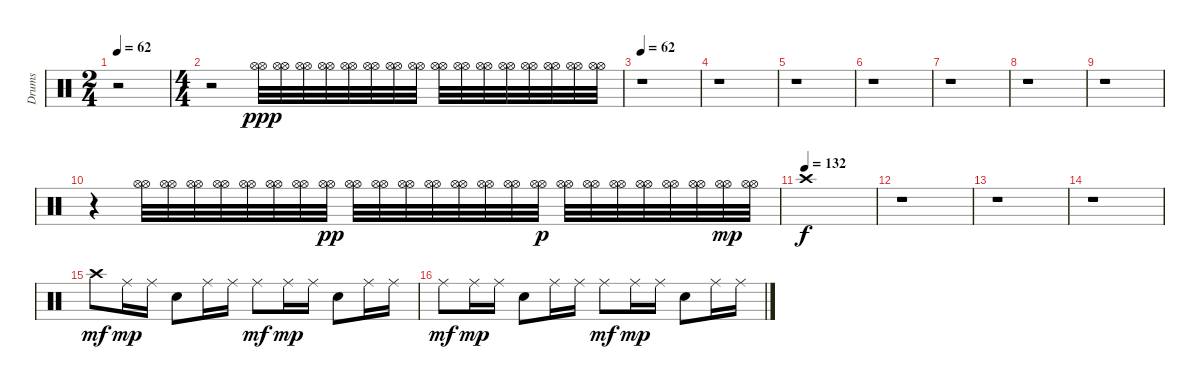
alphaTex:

\track ("Drums" "Drums") {instrument percussion}
\staff {score}
\articulation defaults
\ts (2 4)
\tempo 62
\clef neutral
\ks c
r.2{dy ppp} |
\ts (4 4)
r.2 ("Hi-Hat (open)" "Hi-Hat (open)").32 ("Hi-Hat (open)" "Hi-Hat (open)").32 ("Hi-Hat (open)" "Hi-Hat (open)").32 ("Hi-Hat (open)" "Hi-Hat (open)").32 ("Hi-Hat (open)" "Hi-Hat (open)").32 ("Hi-Hat (open)" "Hi-Hat (open)").32 ("Hi-Hat (open)" "Hi-Hat (open)").32 ("Hi-Hat (open)" "Hi-Hat (open)").32 ("Hi-Hat (open)" "Hi-Hat (open)").32 ("Hi-Hat (open)" "Hi-Hat (open)").32 ("Hi-Hat (open)" "Hi-Hat (open)").32 ("Hi-Hat (open)" "Hi-Hat (open)").32 ("Hi-Hat (open)" "Hi-Hat (open)").32 ("Hi-Hat (open)" "Hi-Hat (open)").32 ("Hi-Hat (open)" "Hi-Hat (open)").32 ("Hi-Hat (open)" "Hi-Hat (open)").32 |
\tempo 62
r.1 |
r.1 |
r.1 |
r.1 |
r.1 |
r.1 |
r.1 |
r.4 ("Hi-Hat (open)" "Hi-Hat (open)").32 ("Hi-Hat (open)" "Hi-Hat (open)").32 ("Hi-Hat (open)" "Hi-Hat (open)").32 ("Hi-Hat (open)" "Hi-Hat (open)").32 ("Hi-Hat (open)" "Hi-Hat (open)").32 ("Hi-Hat (open)" "Hi-Hat (open)").32 ("Hi-Hat (open)" "Hi-Hat (open)").32 ("Hi-Hat (open)" "Hi-Hat (open)").32{dy pp} ("Hi-Hat (open)" "Hi-Hat (open)").32 ("Hi-Hat (open)" "Hi-Hat (open)").32 ("Hi-Hat (open)" "Hi-Hat (open)").32 ("Hi-Hat (open)" "Hi-Hat (open)").32 ("Hi-Hat (open)" "Hi-Hat (open)").32 ("Hi-Hat (open)" "Hi-Hat (open)").32 ("Hi-Hat (open)" "Hi-Hat (open)").32 ("Hi-Hat (open)" "Hi-Hat (open)").32{dy p} ("Hi-Hat (open)" "Hi-Hat (open)").32 ("Hi-Hat (open)" "Hi-Hat (open)").32 ("Hi-Hat (open)" "Hi-Hat (open)").32 ("Hi-Hat (open)" "Hi-Hat (open)").32 ("Hi-Hat (open)" "Hi-Hat (open)").32 ("Hi-Hat (open)" "Hi-Hat (open)").32 ("Hi-Hat (open)" "Hi-Hat (open)").32{dy mp} ("Hi-Hat (open)" "Hi-Hat (open)").32 |
\tempo (132)
"Crash high (hit)".1{dy f} |
r.1 |
r.1 |
r.1 |
"Crash high (hit)".8{dy mf} "Ride (middle)".16{dy mp} "Ride (middle)".16 "Snare (hit) 2".8 "Ride (middle)".16 "Ride (middle)".16 "Ride (middle)".8{dy mf} "Ride (middle)".16{dy mp} "Ride (middle)".16 "Snare (hit) 2".8 "Ride (middle)".16 "Ride (middle)".16 |
"Ride (middle)".8{dy mf} "Ride (middle)".16{dy mp} "Ride (middle)".16 "Snare (hit) 2".8 "Ride (middle)".16 "Ride (middle)".16 "Ride (middle)".8{dy mf} "Ride (middle)".16{dy mp} "Ride (middle)".16 "Snare (hit) 2".8 "Ride (middle)".16 "Ride (middle)".16
